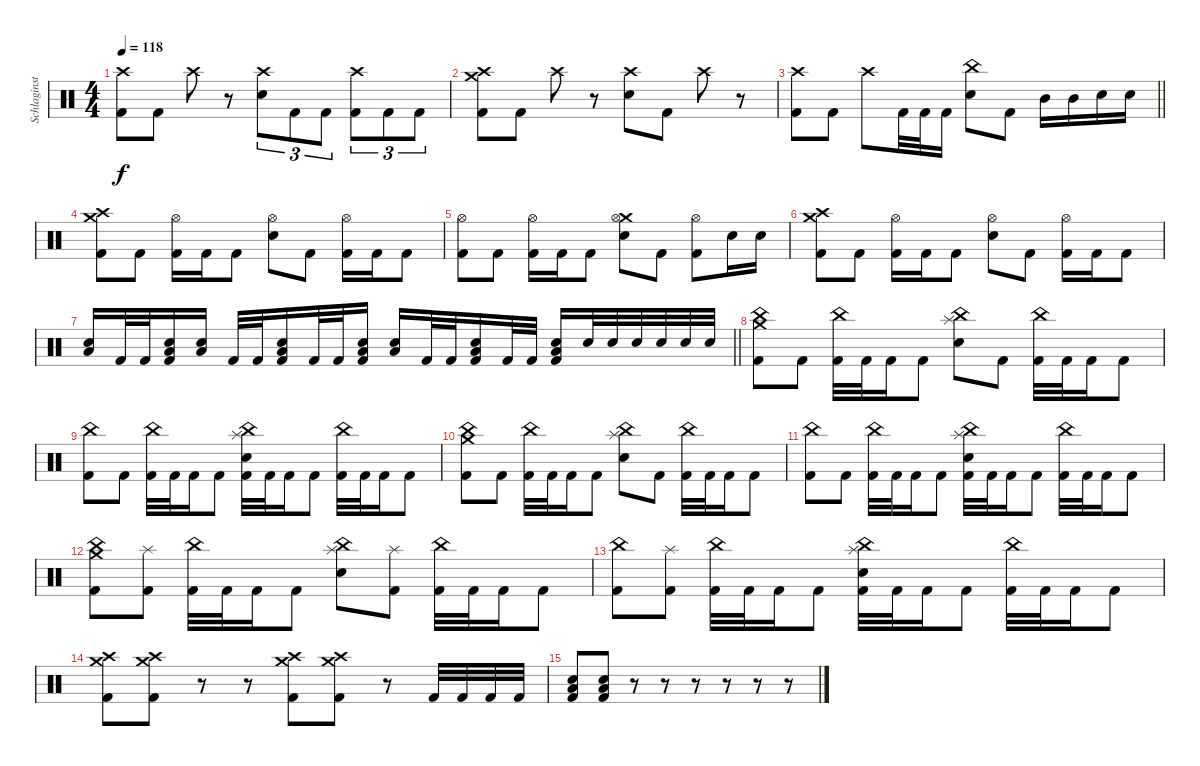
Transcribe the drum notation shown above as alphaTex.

\track ("Schlaginstrumente - Auswahl" "Schlaginst") {instrument percussion}
\staff {score}
\articulation defaults
\ts (4 4)
\tempo 118
\clef neutral
\ks c
("Crash high (hit)" "Kick (hit) 2").8{dy f} "Kick (hit) 2".8 "Crash high (hit)".8 r.8 ("Crash high (hit)" "Electric Snare (hit)").8{tu (3 2)} "Kick (hit) 2".8{tu (3 2)} "Kick (hit) 2".8{tu (3 2)} ("Crash high (hit)" "Kick (hit) 2").8{tu (3 2)} "Kick (hit) 2".8{tu (3 2)} "Kick (hit) 2".8{tu (3 2)} |
("Crash medium (hit)" "Crash high (hit)" "Kick (hit) 2").8 "Kick (hit) 2".8 "Crash high (hit)".8 r.8 ("Crash high (hit)" "Electric Snare (hit)").8 "Kick (hit) 2".8 "Crash high (hit)".8 r.8 |
\barLineRight lightlight
("Crash high (hit)" "Kick (hit) 2").8 "Kick (hit) 2".8 "Crash high (hit)".8 "Kick (hit) 2".32 "Kick (hit) 2".32 "Kick (hit) 2".16 ("China (hit)" "Electric Snare (hit)").8 "Kick (hit) 2".8 "Mid Tom (hit)".16 "Mid Tom (hit)".16 "Electric Snare (hit)".16 "Electric Snare (hit)".16 |
("Crash medium (hit)" "Crash high (hit)" "Kick (hit) 2").8 "Kick (hit) 2".8 ("Hi-Hat (open)" "Kick (hit) 2").16 "Kick (hit) 2".16 "Kick (hit) 2".8 ("Hi-Hat (open)" "Electric Snare (hit)").8 "Kick (hit) 2".8 ("Hi-Hat (open)" "Kick (hit) 2").16 "Kick (hit) 2".16 "Kick (hit) 2".8 |
("Hi-Hat (open)" "Kick (hit) 2").8 "Kick (hit) 2".8 ("Hi-Hat (open)" "Kick (hit) 2").16 "Kick (hit) 2".16 "Kick (hit) 2".8 ("Crash medium (hit)" "Hi-Hat (open)" "Electric Snare (hit)").8 "Kick (hit) 2".8 ("Hi-Hat (open)" "Kick (hit) 2").8 "Electric Snare (hit)".16 "Electric Snare (hit)".16 |
("Crash medium (hit)" "Crash high (hit)" "Kick (hit) 2").8 "Kick (hit) 2".8 ("Hi-Hat (open)" "Kick (hit) 2").16 "Kick (hit) 2".16 "Kick (hit) 2".8 ("Hi-Hat (open)" "Electric Snare (hit)").8 "Kick (hit) 2".8 ("Hi-Hat (open)" "Kick (hit) 2").16 "Kick (hit) 2".16 "Kick (hit) 2".8 |
\barLineRight lightlight
("Low Floor Tom (hit)" "Electric Snare (hit)").16 "Kick (hit) 2".32 "Kick (hit) 2".32 ("Low Floor Tom (hit)" "Electric Snare (hit)" "Kick (hit) 2").16 ("Low Floor Tom (hit)" "Electric Snare (hit)").16 "Kick (hit) 2".32 "Kick (hit) 2".32 ("Low Floor Tom (hit)" "Electric Snare (hit)" "Kick (hit) 2").16 "Kick (hit) 2".32 "Kick (hit) 2".32 ("Low Floor Tom (hit)" "Electric Snare (hit)" "Kick (hit) 2").16 ("Low Floor Tom (hit)" "Electric Snare (hit)").16 "Kick (hit) 2".32 "Kick (hit) 2".32 ("Low Floor Tom (hit)" "Electric Snare (hit)" "Kick (hit) 2").16 "Kick (hit) 2".32 "Kick (hit) 2".32 ("Low Floor Tom (hit)" "Electric Snare (hit)" "Kick (hit) 2").16 "Electric Snare (hit)".32 "Electric Snare (hit)".32 "Electric Snare (hit)".32 "Electric Snare (hit)".32 "Electric Snare (hit)".32 "Electric Snare (hit)".32 |
("China (hit)" "Crash medium (hit)" "Kick (hit) 2").8 "Kick (hit) 2".8 ("China (hit)" "Kick (hit) 2").32 "Kick (hit) 2".32 "Kick (hit) 2".16 "Kick (hit) 2".8 ("Splash (hit)" "China (hit)" "Electric Snare (hit)").8 "Kick (hit) 2".8 ("China (hit)" "Kick (hit) 2").32 "Kick (hit) 2".32 "Kick (hit) 2".16 "Kick (hit) 2".8 |
("China (hit)" "Kick (hit) 2").8 "Kick (hit) 2".8 ("China (hit)" "Kick (hit) 2").32 "Kick (hit) 2".32 "Kick (hit) 2".16 "Kick (hit) 2".8 ("Splash (hit)" "China (hit)" "Electric Snare (hit)" "Kick (hit) 2").32 "Kick (hit) 2".32 "Kick (hit) 2".16 "Kick (hit) 2".8 ("China (hit)" "Kick (hit) 2").32 "Kick (hit) 2".32 "Kick (hit) 2".16 "Kick (hit) 2".8 |
("China (hit)" "Crash medium (hit)" "Kick (hit) 2").8 "Kick (hit) 2".8 ("China (hit)" "Kick (hit) 2").32 "Kick (hit) 2".32 "Kick (hit) 2".16 "Kick (hit) 2".8 ("Splash (hit)" "China (hit)" "Electric Snare (hit)").8 "Kick (hit) 2".8 ("China (hit)" "Kick (hit) 2").32 "Kick (hit) 2".32 "Kick (hit) 2".16 "Kick (hit) 2".8 |
("China (hit)" "Kick (hit) 2").8 "Kick (hit) 2".8 ("China (hit)" "Kick (hit) 2").32 "Kick (hit) 2".32 "Kick (hit) 2".16 "Kick (hit) 2".8 ("Splash (hit)" "China (hit)" "Electric Snare (hit)" "Kick (hit) 2").32 "Kick (hit) 2".32 "Kick (hit) 2".16 "Kick (hit) 2".8 ("China (hit)" "Kick (hit) 2").32 "Kick (hit) 2".32 "Kick (hit) 2".16 "Kick (hit) 2".8 |
("China (hit)" "Crash medium (hit)" "Kick (hit) 2").8 ("Splash (hit)" "Kick (hit) 2").8 ("China (hit)" "Kick (hit) 2").32 "Kick (hit) 2".32 "Kick (hit) 2".16 "Kick (hit) 2".8 ("Splash (hit)" "China (hit)" "Electric Snare (hit)").8 ("Splash (hit)" "Kick (hit) 2").8 ("China (hit)" "Kick (hit) 2").32 "Kick (hit) 2".32 "Kick (hit) 2".16 "Kick (hit) 2".8 |
("China (hit)" "Kick (hit) 2").8 ("Splash (hit)" "Kick (hit) 2").8 ("China (hit)" "Kick (hit) 2").32 "Kick (hit) 2".32 "Kick (hit) 2".16 "Kick (hit) 2".8 ("Splash (hit)" "China (hit)" "Electric Snare (hit)" "Kick (hit) 2").32 "Kick (hit) 2".32 "Kick (hit) 2".16 "Kick (hit) 2".8 ("China (hit)" "Kick (hit) 2").32 "Kick (hit) 2".32 "Kick (hit) 2".16 "Kick (hit) 2".8 |
("Crash medium (hit)" "Crash high (hit)" "Kick (hit) 2").8 ("Crash medium (hit)" "Crash high (hit)" "Kick (hit) 2").8 r.8 r.8 ("Crash medium (hit)" "Crash high (hit)" "Kick (hit) 2").8 ("Crash medium (hit)" "Crash high (hit)" "Kick (hit) 2").8 r.8 "Kick (hit) 2".32 "Kick (hit) 2".32 "Kick (hit) 2".32 "Kick (hit) 2".32 |
("Low Floor Tom (hit)" "Electric Snare (hit)" "Kick (hit) 2").8 ("Low Floor Tom (hit)" "Electric Snare (hit)" "Kick (hit) 2").8 r.8 r.8 r.8 r.8 r.8 r.8
